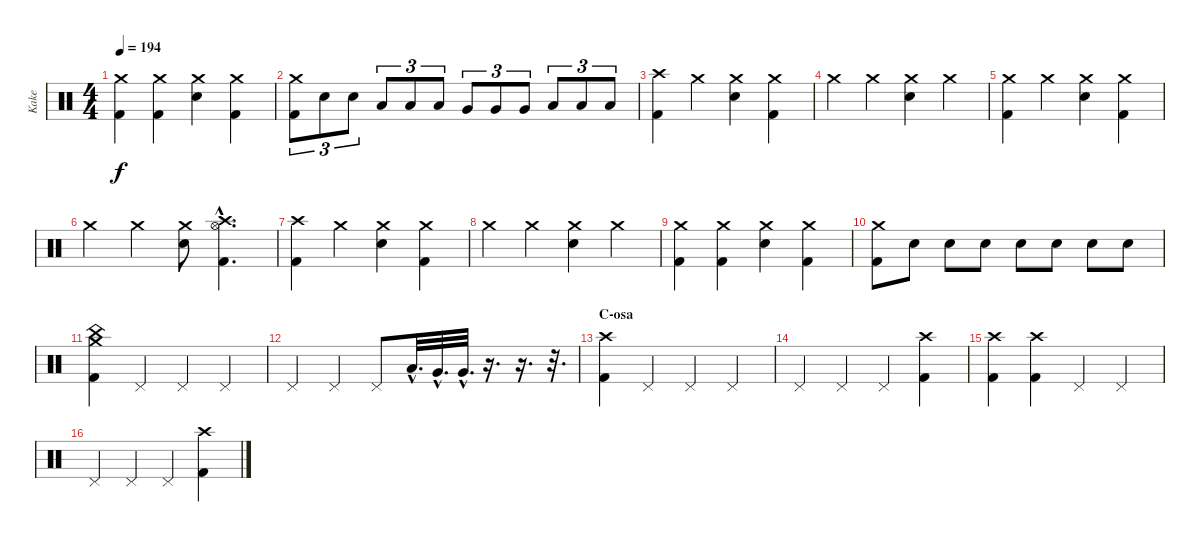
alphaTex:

\track ("Kake" "Kake") {instrument percussion}
\staff {score}
\articulation defaults
\ts (4 4)
\tempo 194
\clef neutral
\ks c
("Crash medium (hit)" "Kick (hit) 2").4{dy f} ("Crash medium (hit)" "Kick (hit) 2").4 ("Crash medium (hit)" "Electric Snare (hit)").4 ("Crash medium (hit)" "Kick (hit) 2").4 |
("Crash medium (hit)" "Kick (hit) 2").8{tu (3 2)} "Electric Snare (hit)".8{tu (3 2)} "Electric Snare (hit)".8{tu (3 2)} "Low Tom (hit)".8{tu (3 2)} "Low Tom (hit)".8{tu (3 2)} "Low Tom (hit)".8{tu (3 2)} "Very Low Tom (hit)".8{tu (3 2)} "Very Low Tom (hit)".8{tu (3 2)} "Very Low Tom (hit)".8{tu (3 2)} "Low Floor Tom (hit)".8{tu (3 2)} "Low Floor Tom (hit)".8{tu (3 2)} "Low Floor Tom (hit)".8{tu (3 2)} |
("Crash high (hit)" "Kick (hit) 2").4 "Crash medium (hit)".4 ("Crash medium (hit)" "Electric Snare (hit)").4 ("Crash medium (hit)" "Kick (hit) 2").4 |
"Crash medium (hit)".4 "Crash medium (hit)".4 ("Crash medium (hit)" "Electric Snare (hit)").4 "Crash medium (hit)".4 |
("Crash medium (hit)" "Kick (hit) 2").4 "Crash medium (hit)".4 ("Crash medium (hit)" "Electric Snare (hit)").4 ("Crash medium (hit)" "Kick (hit) 2").4 |
"Crash medium (hit)".4 "Crash medium (hit)".4 ("Crash medium (hit)" "Electric Snare (hit)").8 ("Crash high (hit)"{hac} "Hi-Hat (open)"{hac} "Kick (hit) 2"{hac}).4{d} |
("Crash high (hit)" "Kick (hit) 2").4 "Crash medium (hit)".4 ("Crash medium (hit)" "Electric Snare (hit)").4 ("Crash medium (hit)" "Kick (hit) 2").4 |
"Crash medium (hit)".4 "Crash medium (hit)".4 ("Crash medium (hit)" "Electric Snare (hit)").4 "Crash medium (hit)".4 |
("Crash medium (hit)" "Kick (hit) 2").4 ("Crash medium (hit)" "Kick (hit) 2").4 ("Crash medium (hit)" "Electric Snare (hit)").4 ("Crash medium (hit)" "Kick (hit) 2").4 |
("Crash medium (hit)" "Kick (hit) 2").8 "Electric Snare (hit)".8 "Electric Snare (hit)".8 "Electric Snare (hit)".8 "Electric Snare (hit)".8 "Electric Snare (hit)".8 "Electric Snare (hit)".8 "Electric Snare (hit)".8 |
("China (hit)" "Kick (hit) 2" "Crash medium (hit)").4 "Pedal Hi-Hat (hit)".4 "Pedal Hi-Hat (hit)".4 "Pedal Hi-Hat (hit)".4 |
"Pedal Hi-Hat (hit)".4 "Pedal Hi-Hat (hit)".4 "Pedal Hi-Hat (hit)".8 "Low Tom (hit)"{hac}.32{d} "Very Low Tom (hit)"{hac}.32{d} "Very Low Tom (hit)"{hac}.32{d} r.16{d} r.16{d} r.32{d} |
\section ("" "C-osa")
("Crash high (hit)" "Kick (hit) 2").4 "Pedal Hi-Hat (hit)".4 "Pedal Hi-Hat (hit)".4 "Pedal Hi-Hat (hit)".4 |
"Pedal Hi-Hat (hit)".4 "Pedal Hi-Hat (hit)".4 "Pedal Hi-Hat (hit)".4 ("Crash high (hit)" "Kick (hit) 2").4 |
("Crash high (hit)" "Kick (hit) 2").4 ("Crash high (hit)" "Kick (hit) 2").4 "Pedal Hi-Hat (hit)".4 "Pedal Hi-Hat (hit)".4 |
"Pedal Hi-Hat (hit)".4 "Pedal Hi-Hat (hit)".4 "Pedal Hi-Hat (hit)".4 ("Crash high (hit)" "Kick (hit) 2").4
